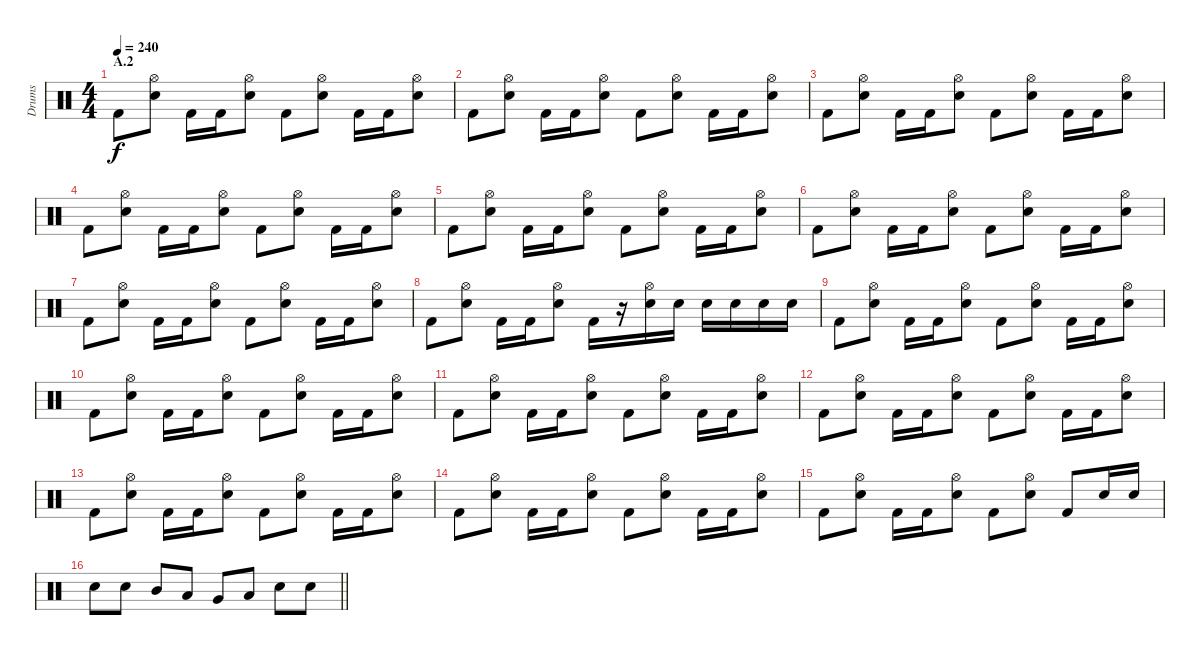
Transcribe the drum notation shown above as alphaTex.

\track ("Drums" "Drums") {instrument percussion}
\staff {score}
\articulation defaults
\ts (4 4)
\section ("" "A.2")
\tempo 240
\clef neutral
\ks c "Kick (hit) 2".8{dy f}
("Hi-Hat (open)" "Electric Snare (hit)").8 "Kick (hit) 2".16 "Kick (hit) 2".16 ("Hi-Hat (open)" "Electric Snare (hit)").8 "Kick (hit) 2".8 ("Hi-Hat (open)" "Electric Snare (hit)").8 "Kick (hit) 2".16 "Kick (hit) 2".16 ("Hi-Hat (open)" "Electric Snare (hit)").8 |
"Kick (hit) 2".8 ("Hi-Hat (open)" "Electric Snare (hit)").8 "Kick (hit) 2".16 "Kick (hit) 2".16 ("Hi-Hat (open)" "Electric Snare (hit)").8 "Kick (hit) 2".8 ("Hi-Hat (open)" "Electric Snare (hit)").8 "Kick (hit) 2".16 "Kick (hit) 2".16 ("Hi-Hat (open)" "Electric Snare (hit)").8 |
"Kick (hit) 2".8 ("Hi-Hat (open)" "Electric Snare (hit)").8 "Kick (hit) 2".16 "Kick (hit) 2".16 ("Hi-Hat (open)" "Electric Snare (hit)").8 "Kick (hit) 2".8 ("Hi-Hat (open)" "Electric Snare (hit)").8 "Kick (hit) 2".16 "Kick (hit) 2".16 ("Hi-Hat (open)" "Electric Snare (hit)").8 |
"Kick (hit) 2".8 ("Hi-Hat (open)" "Electric Snare (hit)").8 "Kick (hit) 2".16 "Kick (hit) 2".16 ("Hi-Hat (open)" "Electric Snare (hit)").8 "Kick (hit) 2".8 ("Hi-Hat (open)" "Electric Snare (hit)").8 "Kick (hit) 2".16 "Kick (hit) 2".16 ("Hi-Hat (open)" "Electric Snare (hit)").8 |
"Kick (hit) 2".8 ("Hi-Hat (open)" "Electric Snare (hit)").8 "Kick (hit) 2".16 "Kick (hit) 2".16 ("Hi-Hat (open)" "Electric Snare (hit)").8 "Kick (hit) 2".8 ("Hi-Hat (open)" "Electric Snare (hit)").8 "Kick (hit) 2".16 "Kick (hit) 2".16 ("Hi-Hat (open)" "Electric Snare (hit)").8 |
"Kick (hit) 2".8 ("Hi-Hat (open)" "Electric Snare (hit)").8 "Kick (hit) 2".16 "Kick (hit) 2".16 ("Hi-Hat (open)" "Electric Snare (hit)").8 "Kick (hit) 2".8 ("Hi-Hat (open)" "Electric Snare (hit)").8 "Kick (hit) 2".16 "Kick (hit) 2".16 ("Hi-Hat (open)" "Electric Snare (hit)").8 |
"Kick (hit) 2".8 ("Hi-Hat (open)" "Electric Snare (hit)").8 "Kick (hit) 2".16 "Kick (hit) 2".16 ("Hi-Hat (open)" "Electric Snare (hit)").8 "Kick (hit) 2".8 ("Hi-Hat (open)" "Electric Snare (hit)").8 "Kick (hit) 2".16 "Kick (hit) 2".16 ("Hi-Hat (open)" "Electric Snare (hit)").8 |
"Kick (hit) 2".8 ("Hi-Hat (open)" "Electric Snare (hit)").8 "Kick (hit) 2".16 "Kick (hit) 2".16 ("Hi-Hat (open)" "Electric Snare (hit)").8 "Kick (hit) 2".16 r.16 ("Hi-Hat (open)" "Electric Snare (hit)").16 "Electric Snare (hit)".16 "Electric Snare (hit)".16 "Electric Snare (hit)".16 "Electric Snare (hit)".16 "Electric Snare (hit)".16 |
"Kick (hit) 2".8 ("Hi-Hat (open)" "Electric Snare (hit)").8 "Kick (hit) 2".16 "Kick (hit) 2".16 ("Hi-Hat (open)" "Electric Snare (hit)").8 "Kick (hit) 2".8 ("Hi-Hat (open)" "Electric Snare (hit)").8 "Kick (hit) 2".16 "Kick (hit) 2".16 ("Hi-Hat (open)" "Electric Snare (hit)").8 |
"Kick (hit) 2".8 ("Hi-Hat (open)" "Electric Snare (hit)").8 "Kick (hit) 2".16 "Kick (hit) 2".16 ("Hi-Hat (open)" "Electric Snare (hit)").8 "Kick (hit) 2".8 ("Hi-Hat (open)" "Electric Snare (hit)").8 "Kick (hit) 2".16 "Kick (hit) 2".16 ("Hi-Hat (open)" "Electric Snare (hit)").8 |
"Kick (hit) 2".8 ("Hi-Hat (open)" "Electric Snare (hit)").8 "Kick (hit) 2".16 "Kick (hit) 2".16 ("Hi-Hat (open)" "Electric Snare (hit)").8 "Kick (hit) 2".8 ("Hi-Hat (open)" "Electric Snare (hit)").8 "Kick (hit) 2".16 "Kick (hit) 2".16 ("Hi-Hat (open)" "Electric Snare (hit)").8 |
"Kick (hit) 2".8 ("Hi-Hat (open)" "Electric Snare (hit)").8 "Kick (hit) 2".16 "Kick (hit) 2".16 ("Hi-Hat (open)" "Electric Snare (hit)").8 "Kick (hit) 2".8 ("Hi-Hat (open)" "Electric Snare (hit)").8 "Kick (hit) 2".16 "Kick (hit) 2".16 ("Hi-Hat (open)" "Electric Snare (hit)").8 |
"Kick (hit) 2".8 ("Hi-Hat (open)" "Electric Snare (hit)").8 "Kick (hit) 2".16 "Kick (hit) 2".16 ("Hi-Hat (open)" "Electric Snare (hit)").8 "Kick (hit) 2".8 ("Hi-Hat (open)" "Electric Snare (hit)").8 "Kick (hit) 2".16 "Kick (hit) 2".16 ("Hi-Hat (open)" "Electric Snare (hit)").8 |
"Kick (hit) 2".8 ("Hi-Hat (open)" "Electric Snare (hit)").8 "Kick (hit) 2".16 "Kick (hit) 2".16 ("Hi-Hat (open)" "Electric Snare (hit)").8 "Kick (hit) 2".8 ("Hi-Hat (open)" "Electric Snare (hit)").8 "Kick (hit) 2".16 "Kick (hit) 2".16 ("Hi-Hat (open)" "Electric Snare (hit)").8 |
"Kick (hit) 2".8 ("Hi-Hat (open)" "Electric Snare (hit)").8 "Kick (hit) 2".16 "Kick (hit) 2".16 ("Hi-Hat (open)" "Electric Snare (hit)").8 "Kick (hit) 2".8 ("Hi-Hat (open)" "Electric Snare (hit)").8 "Kick (hit) 2".8 "Electric Snare (hit)".16 "Electric Snare (hit)".16 |
\barLineRight lightlight "Electric Snare (hit)".8 "Electric Snare (hit)".8 "Mid Tom (hit)".8 "Low Tom (hit)".8 "Very Low Tom (hit)".8 "Low Floor Tom (hit)".8 "Electric Snare (hit)".8 "Electric Snare (hit)".8
